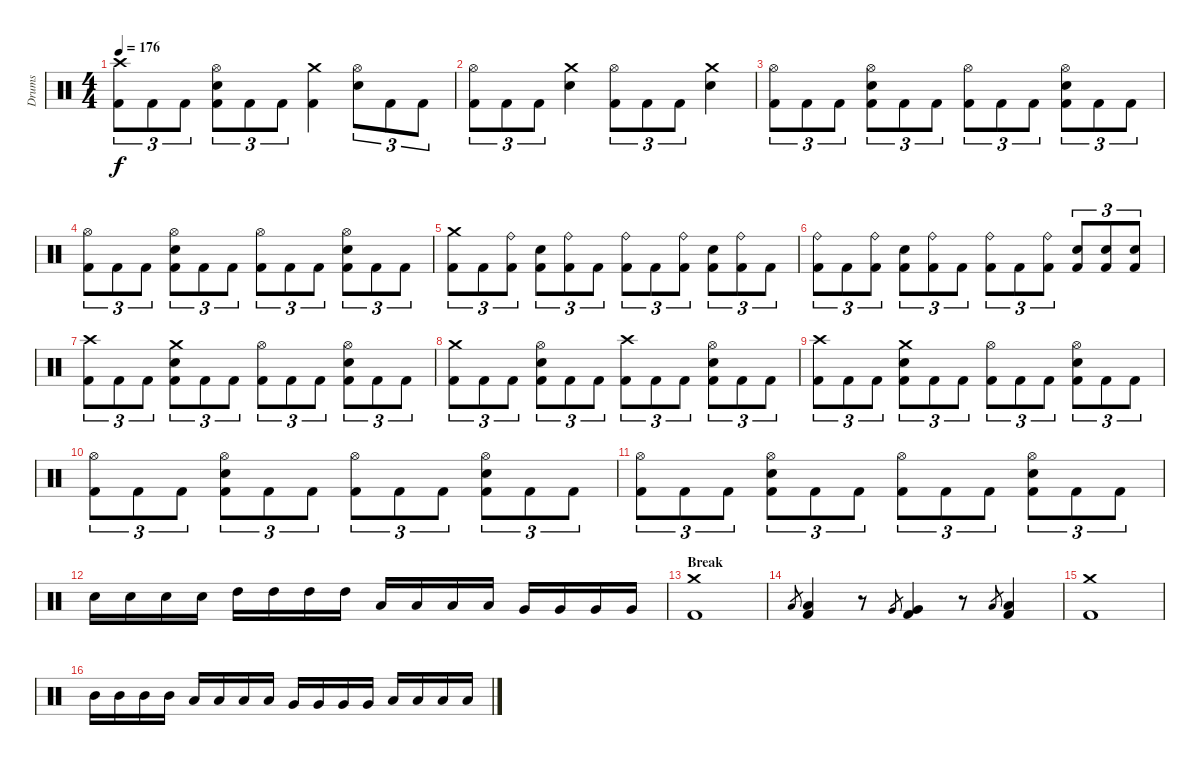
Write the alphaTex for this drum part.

\track ("Drums" "Drums") {instrument percussion}
\staff {score}
\articulation defaults
\ts (4 4)
\tempo 176
\clef neutral
\ks c
("Kick (hit) 2" "Crash high (hit)").8{tu (3 2) dy f} "Kick (hit) 2".8{tu (3 2)} "Kick (hit) 2".8{tu (3 2)} ("Kick (hit) 2" "Electric Snare (hit)" "Hi-Hat (open)").8{tu (3 2)} "Kick (hit) 2".8{tu (3 2)} "Kick (hit) 2".8{tu (3 2)} ("Kick (hit) 2" "Crash medium (hit)").4 ("Electric Snare (hit)" "Hi-Hat (open)").8{tu (3 2)} "Kick (hit) 2".8{tu (3 2)} "Kick (hit) 2".8{tu (3 2)} |
("Kick (hit) 2" "Hi-Hat (open)").8{tu (3 2)} "Kick (hit) 2".8{tu (3 2)} "Kick (hit) 2".8{tu (3 2)} ("Electric Snare (hit)" "Crash medium (hit)").4 ("Kick (hit) 2" "Hi-Hat (open)").8{tu (3 2)} "Kick (hit) 2".8{tu (3 2)} "Kick (hit) 2".8{tu (3 2)} ("Electric Snare (hit)" "Crash medium (hit)").4 |
("Kick (hit) 2" "Hi-Hat (open)").8{tu (3 2)} "Kick (hit) 2".8{tu (3 2)} "Kick (hit) 2".8{tu (3 2)} ("Kick (hit) 2" "Electric Snare (hit)" "Hi-Hat (open)").8{tu (3 2)} "Kick (hit) 2".8{tu (3 2)} "Kick (hit) 2".8{tu (3 2)} ("Kick (hit) 2" "Hi-Hat (open)").8{tu (3 2)} "Kick (hit) 2".8{tu (3 2)} "Kick (hit) 2".8{tu (3 2)} ("Kick (hit) 2" "Electric Snare (hit)" "Hi-Hat (open)").8{tu (3 2)} "Kick (hit) 2".8{tu (3 2)} "Kick (hit) 2".8{tu (3 2)} |
("Kick (hit) 2" "Hi-Hat (open)").8{tu (3 2)} "Kick (hit) 2".8{tu (3 2)} "Kick (hit) 2".8{tu (3 2)} ("Kick (hit) 2" "Electric Snare (hit)" "Hi-Hat (open)").8{tu (3 2)} "Kick (hit) 2".8{tu (3 2)} "Kick (hit) 2".8{tu (3 2)} ("Kick (hit) 2" "Hi-Hat (open)").8{tu (3 2)} "Kick (hit) 2".8{tu (3 2)} "Kick (hit) 2".8{tu (3 2)} ("Kick (hit) 2" "Electric Snare (hit)" "Hi-Hat (open)").8{tu (3 2)} "Kick (hit) 2".8{tu (3 2)} "Kick (hit) 2".8{tu (3 2)} |
\section ("" "")
("Kick (hit) 2" "Crash medium (hit)").8{tu (3 2)} "Kick (hit) 2".8{tu (3 2)} ("Kick (hit) 2" "Ride (bell)").8{tu (3 2)} ("Kick (hit) 2" "Electric Snare (hit)").8{tu (3 2)} ("Kick (hit) 2" "Ride (bell)").8{tu (3 2)} "Kick (hit) 2".8{tu (3 2)} ("Kick (hit) 2" "Ride (bell)").8{tu (3 2)} "Kick (hit) 2".8{tu (3 2)} ("Kick (hit) 2" "Ride (bell)").8{tu (3 2)} ("Kick (hit) 2" "Electric Snare (hit)").8{tu (3 2)} ("Kick (hit) 2" "Ride (bell)").8{tu (3 2)} "Kick (hit) 2".8{tu (3 2)} |
("Kick (hit) 2" "Ride (bell)").8{tu (3 2)} "Kick (hit) 2".8{tu (3 2)} ("Kick (hit) 2" "Ride (bell)").8{tu (3 2)} ("Kick (hit) 2" "Electric Snare (hit)").8{tu (3 2)} ("Kick (hit) 2" "Ride (bell)").8{tu (3 2)} "Kick (hit) 2".8{tu (3 2)} ("Kick (hit) 2" "Ride (bell)").8{tu (3 2)} "Kick (hit) 2".8{tu (3 2)} ("Kick (hit) 2" "Ride (bell)").8{tu (3 2)} ("Kick (hit) 2" "Electric Snare (hit)").8{tu (3 2)} ("Kick (hit) 2" "Electric Snare (hit)").8{tu (3 2)} ("Kick (hit) 2" "Electric Snare (hit)").8{tu (3 2)} |
("Kick (hit) 2" "Crash high (hit)").8{tu (3 2)} "Kick (hit) 2".8{tu (3 2)} "Kick (hit) 2".8{tu (3 2)} ("Kick (hit) 2" "Electric Snare (hit)" "Crash medium (hit)").8{tu (3 2)} "Kick (hit) 2".8{tu (3 2)} "Kick (hit) 2".8{tu (3 2)} ("Kick (hit) 2" "Hi-Hat (open)").8{tu (3 2)} "Kick (hit) 2".8{tu (3 2)} "Kick (hit) 2".8{tu (3 2)} ("Kick (hit) 2" "Electric Snare (hit)" "Hi-Hat (open)").8{tu (3 2)} "Kick (hit) 2".8{tu (3 2)} "Kick (hit) 2".8{tu (3 2)} |
("Kick (hit) 2" "Crash medium (hit)").8{tu (3 2)} "Kick (hit) 2".8{tu (3 2)} "Kick (hit) 2".8{tu (3 2)} ("Kick (hit) 2" "Electric Snare (hit)" "Hi-Hat (open)").8{tu (3 2)} "Kick (hit) 2".8{tu (3 2)} "Kick (hit) 2".8{tu (3 2)} ("Kick (hit) 2" "Crash high (hit)").8{tu (3 2)} "Kick (hit) 2".8{tu (3 2)} "Kick (hit) 2".8{tu (3 2)} ("Kick (hit) 2" "Electric Snare (hit)" "Hi-Hat (open)").8{tu (3 2)} "Kick (hit) 2".8{tu (3 2)} "Kick (hit) 2".8{tu (3 2)} |
("Kick (hit) 2" "Crash high (hit)").8{tu (3 2)} "Kick (hit) 2".8{tu (3 2)} "Kick (hit) 2".8{tu (3 2)} ("Kick (hit) 2" "Electric Snare (hit)" "Crash medium (hit)").8{tu (3 2)} "Kick (hit) 2".8{tu (3 2)} "Kick (hit) 2".8{tu (3 2)} ("Kick (hit) 2" "Hi-Hat (open)").8{tu (3 2)} "Kick (hit) 2".8{tu (3 2)} "Kick (hit) 2".8{tu (3 2)} ("Kick (hit) 2" "Electric Snare (hit)" "Hi-Hat (open)").8{tu (3 2)} "Kick (hit) 2".8{tu (3 2)} "Kick (hit) 2".8{tu (3 2)} |
("Kick (hit) 2" "Hi-Hat (open)").8{tu (3 2)} "Kick (hit) 2".8{tu (3 2)} "Kick (hit) 2".8{tu (3 2)} ("Kick (hit) 2" "Electric Snare (hit)" "Hi-Hat (open)").8{tu (3 2)} "Kick (hit) 2".8{tu (3 2)} "Kick (hit) 2".8{tu (3 2)} ("Kick (hit) 2" "Hi-Hat (open)").8{tu (3 2)} "Kick (hit) 2".8{tu (3 2)} "Kick (hit) 2".8{tu (3 2)} ("Kick (hit) 2" "Electric Snare (hit)" "Hi-Hat (open)").8{tu (3 2)} "Kick (hit) 2".8{tu (3 2)} "Kick (hit) 2".8{tu (3 2)} |
("Kick (hit) 2" "Hi-Hat (open)").8{tu (3 2)} "Kick (hit) 2".8{tu (3 2)} "Kick (hit) 2".8{tu (3 2)} ("Kick (hit) 2" "Electric Snare (hit)" "Hi-Hat (open)").8{tu (3 2)} "Kick (hit) 2".8{tu (3 2)} "Kick (hit) 2".8{tu (3 2)} ("Kick (hit) 2" "Hi-Hat (open)").8{tu (3 2)} "Kick (hit) 2".8{tu (3 2)} "Kick (hit) 2".8{tu (3 2)} ("Kick (hit) 2" "Electric Snare (hit)" "Hi-Hat (open)").8{tu (3 2)} "Kick (hit) 2".8{tu (3 2)} "Kick (hit) 2".8{tu (3 2)} |
"Electric Snare (hit)".16 "Electric Snare (hit)".16 "Electric Snare (hit)".16 "Electric Snare (hit)".16 "High Tom (hit)".16 "High Tom (hit)".16 "High Tom (hit)".16 "High Tom (hit)".16 "Low Tom (hit)".16 "Low Tom (hit)".16 "Low Tom (hit)".16 "Low Tom (hit)".16 "Very Low Tom (hit)".16 "Very Low Tom (hit)".16 "Very Low Tom (hit)".16 "Very Low Tom (hit)".16 |
\section ("" "Break")
("Kick (hit) 2" "Crash medium (hit)").1 |
"Low Tom (hit)".8{gr} ("Kick (hit) 2" "Low Tom (hit)").4 r.8 "Very Low Tom (hit)".8{gr} ("Kick (hit) 2" "Very Low Tom (hit)").4 r.8 "Low Floor Tom (hit)".8{gr} ("Kick (hit) 2" "Low Floor Tom (hit)").4 |
("Kick (hit) 2" "Crash medium (hit)").1 |
"Mid Tom (hit)".16 "Mid Tom (hit)".16 "Mid Tom (hit)".16 "Mid Tom (hit)".16 "Low Tom (hit)".16 "Low Tom (hit)".16 "Low Tom (hit)".16 "Low Tom (hit)".16 "Very Low Tom (hit)".16 "Very Low Tom (hit)".16 "Very Low Tom (hit)".16 "Very Low Tom (hit)".16 "Low Floor Tom (hit)".16 "Low Floor Tom (hit)".16 "Low Floor Tom (hit)".16 "Low Floor Tom (hit)".16
